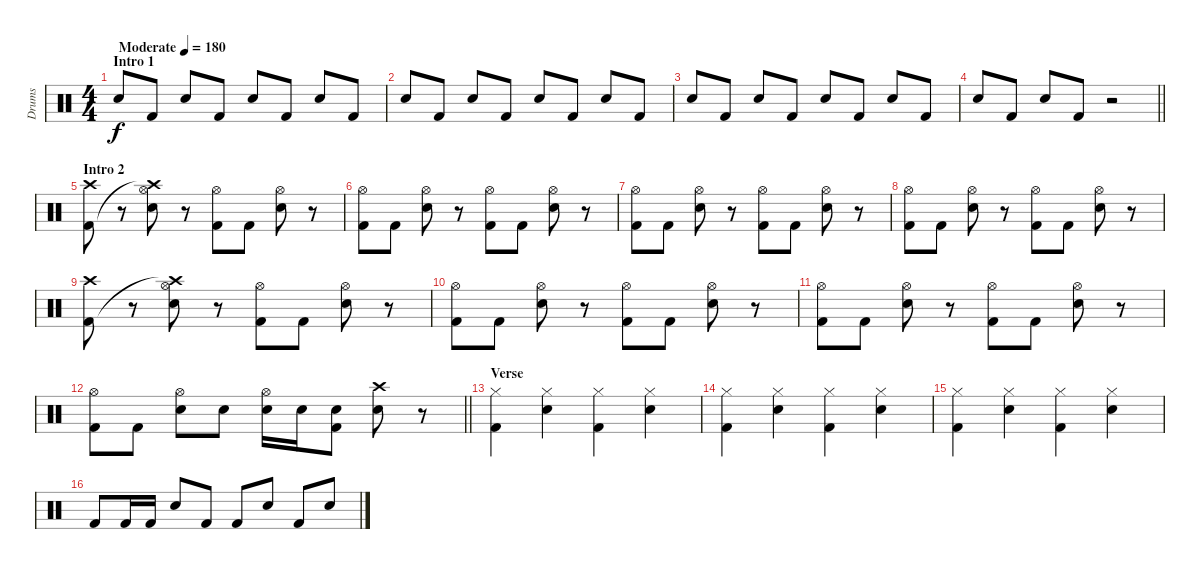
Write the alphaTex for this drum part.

\track ("Drums" "Drums") {instrument percussion}
\staff {score}
\articulation defaults
\ts (4 4)
\section ("" "Intro 1")
\tempo (180 "Moderate")
\clef neutral
\ks c "Snare (hit) 2".8{dy f} "Kick (hit) 2".8 "Snare (hit) 2".8 "Kick (hit) 2".8 "Snare (hit) 2".8 "Kick (hit) 2".8 "Snare (hit) 2".8 "Kick (hit) 2".8
|
"Snare (hit) 2".8 "Kick (hit) 2".8 "Snare (hit) 2".8 "Kick (hit) 2".8 "Snare (hit) 2".8 "Kick (hit) 2".8 "Snare (hit) 2".8 "Kick (hit) 2".8 |
"Snare (hit) 2".8 "Kick (hit) 2".8 "Snare (hit) 2".8 "Kick (hit) 2".8 "Snare (hit) 2".8 "Kick (hit) 2".8 "Snare (hit) 2".8 "Kick (hit) 2".8 |
\barLineRight lightlight "Snare (hit) 2".8 "Kick (hit) 2".8 "Snare (hit) 2".8 "Kick (hit) 2".8
r.2 |
\section ("" "Intro 2")
("Crash high (hit)" "Kick (hit) 2").8 r.8 ("Hi-Hat (open)" "Crash high (hit)"{t} "Snare (hit) 2").8 r.8 ("Hi-Hat (open)" "Kick (hit) 2").8 "Kick (hit) 2".8 ("Hi-Hat (open)" "Snare (hit) 2").8 r.8 |
("Hi-Hat (open)" "Kick (hit) 2").8 "Kick (hit) 2".8 ("Hi-Hat (open)" "Snare (hit) 2").8 r.8 ("Hi-Hat (open)" "Kick (hit) 2").8 "Kick (hit) 2".8 ("Hi-Hat (open)" "Snare (hit) 2").8 r.8 |
("Hi-Hat (open)" "Kick (hit) 2").8 "Kick (hit) 2".8 ("Hi-Hat (open)" "Snare (hit) 2").8 r.8 ("Hi-Hat (open)" "Kick (hit) 2").8 "Kick (hit) 2".8 ("Hi-Hat (open)" "Snare (hit) 2").8 r.8 |
("Hi-Hat (open)" "Kick (hit) 2").8 "Kick (hit) 2".8 ("Hi-Hat (open)" "Snare (hit) 2").8 r.8 ("Hi-Hat (open)" "Kick (hit) 2").8 "Kick (hit) 2".8 ("Hi-Hat (open)" "Snare (hit) 2").8 r.8 |
("Crash high (hit)" "Kick (hit) 2").8 r.8 ("Hi-Hat (open)" "Crash high (hit)"{t} "Snare (hit) 2").8 r.8 ("Hi-Hat (open)" "Kick (hit) 2").8 "Kick (hit) 2".8 ("Hi-Hat (open)" "Snare (hit) 2").8 r.8 |
("Hi-Hat (open)" "Kick (hit) 2").8 "Kick (hit) 2".8 ("Hi-Hat (open)" "Snare (hit) 2").8 r.8 ("Hi-Hat (open)" "Kick (hit) 2").8 "Kick (hit) 2".8 ("Hi-Hat (open)" "Snare (hit) 2").8 r.8 |
("Hi-Hat (open)" "Kick (hit) 2").8 "Kick (hit) 2".8 ("Hi-Hat (open)" "Snare (hit) 2").8 r.8 ("Hi-Hat (open)" "Kick (hit) 2").8 "Kick (hit) 2".8 ("Hi-Hat (open)" "Snare (hit) 2").8 r.8 |
\barLineRight lightlight
("Hi-Hat (open)" "Kick (hit) 2").8 "Kick (hit) 2".8 ("Hi-Hat (open)" "Snare (hit) 2").8 "Snare (hit) 2".8 ("Hi-Hat (open)" "Snare (hit) 2").16 "Snare (hit) 2".16 ("Snare (hit) 2" "Kick (hit) 2").8 ("Crash high (hit)" "Snare (hit) 2").8 r.8 |
\section ("" "Verse")
("Hi-Hat (closed)" "Kick (hit) 2").4 ("Hi-Hat (closed)" "Snare (hit) 2").4 ("Hi-Hat (closed)" "Kick (hit) 2").4 ("Hi-Hat (closed)" "Snare (hit) 2").4 |
("Hi-Hat (closed)" "Kick (hit) 2").4 ("Hi-Hat (closed)" "Snare (hit) 2").4 ("Hi-Hat (closed)" "Kick (hit) 2").4 ("Hi-Hat (closed)" "Snare (hit) 2").4 |
("Hi-Hat (closed)" "Kick (hit) 2").4 ("Hi-Hat (closed)" "Snare (hit) 2").4 ("Hi-Hat (closed)" "Kick (hit) 2").4 ("Hi-Hat (closed)" "Snare (hit) 2").4 |
"Kick (hit) 2".8 "Kick (hit) 2".16 "Kick (hit) 2".16 "Snare (hit) 2".8 "Kick (hit) 2".8 "Kick (hit) 2".8 "Snare (hit) 2".8 "Kick (hit) 2".8 "Snare (hit) 2".8
